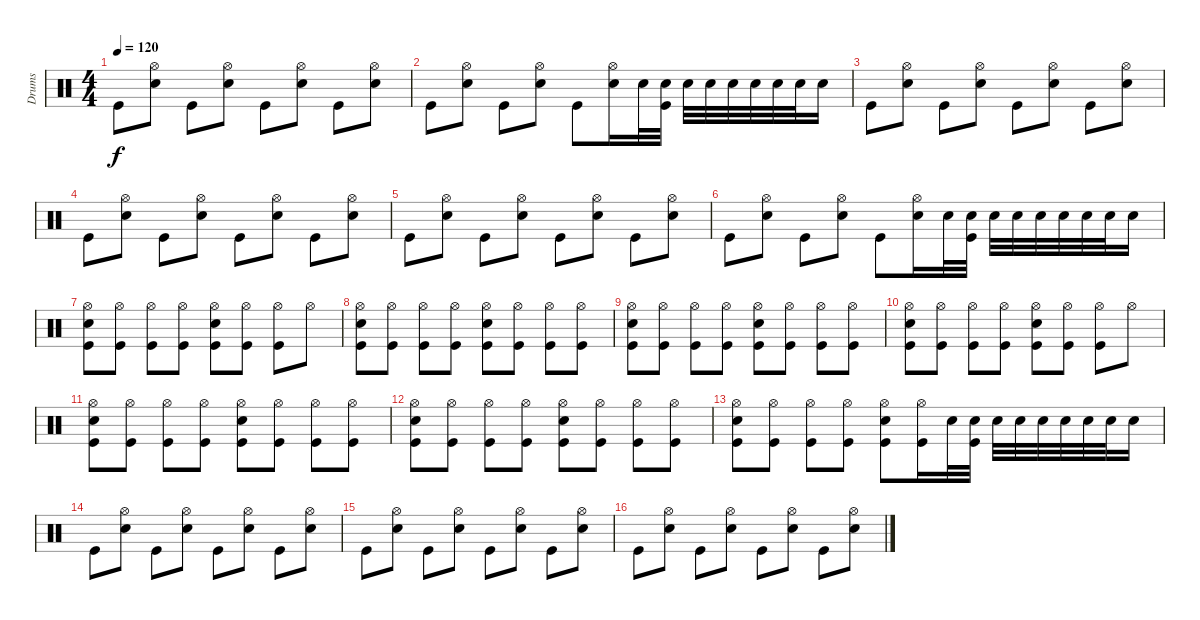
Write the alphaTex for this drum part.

\track ("Drums" "Drums") {instrument percussion}
\staff {score}
\articulation defaults
\ts (4 4)
\tempo 120
\clef neutral
\ks c "Kick (hit)".8{dy f}
("Hi-Hat (open)" "Electric Snare (hit)").8 "Kick (hit)".8 ("Hi-Hat (open)" "Electric Snare (hit)").8 "Kick (hit)".8 ("Hi-Hat (open)" "Electric Snare (hit)").8 "Kick (hit)".8 ("Hi-Hat (open)" "Electric Snare (hit)").8 |
"Kick (hit)".8 ("Hi-Hat (open)" "Electric Snare (hit)").8 "Kick (hit)".8 ("Hi-Hat (open)" "Electric Snare (hit)").8 "Kick (hit)".8 ("Hi-Hat (open)" "Electric Snare (hit)").16 "Electric Snare (hit)".32 ("Electric Snare (hit)" "Kick (hit)").32 "Electric Snare (hit)".32 "Electric Snare (hit)".32 "Electric Snare (hit)".32 "Electric Snare (hit)".32 "Electric Snare (hit)".32 "Electric Snare (hit)".32 "Electric Snare (hit)".16 |
"Kick (hit)".8 ("Hi-Hat (open)" "Electric Snare (hit)").8 "Kick (hit)".8 ("Hi-Hat (open)" "Electric Snare (hit)").8 "Kick (hit)".8 ("Hi-Hat (open)" "Electric Snare (hit)").8 "Kick (hit)".8 ("Hi-Hat (open)" "Electric Snare (hit)").8 |
"Kick (hit)".8 ("Hi-Hat (open)" "Electric Snare (hit)").8 "Kick (hit)".8 ("Hi-Hat (open)" "Electric Snare (hit)").8 "Kick (hit)".8 ("Hi-Hat (open)" "Electric Snare (hit)").8 "Kick (hit)".8 ("Hi-Hat (open)" "Electric Snare (hit)").8 |
"Kick (hit)".8 ("Hi-Hat (open)" "Electric Snare (hit)").8 "Kick (hit)".8 ("Hi-Hat (open)" "Electric Snare (hit)").8 "Kick (hit)".8 ("Hi-Hat (open)" "Electric Snare (hit)").8 "Kick (hit)".8 ("Hi-Hat (open)" "Electric Snare (hit)").8 |
"Kick (hit)".8 ("Hi-Hat (open)" "Electric Snare (hit)").8 "Kick (hit)".8 ("Hi-Hat (open)" "Electric Snare (hit)").8 "Kick (hit)".8 ("Hi-Hat (open)" "Electric Snare (hit)").16 "Electric Snare (hit)".32 ("Electric Snare (hit)" "Kick (hit)").32 "Electric Snare (hit)".32 "Electric Snare (hit)".32 "Electric Snare (hit)".32 "Electric Snare (hit)".32 "Electric Snare (hit)".32 "Electric Snare (hit)".32 "Electric Snare (hit)".16 |
("Hi-Hat (open)" "Electric Snare (hit)" "Kick (hit)").8 ("Hi-Hat (open)" "Kick (hit)").8 ("Hi-Hat (open)" "Kick (hit)").8 ("Hi-Hat (open)" "Kick (hit)").8 ("Hi-Hat (open)" "Electric Snare (hit)" "Kick (hit)").8 ("Hi-Hat (open)" "Kick (hit)").8 ("Hi-Hat (open)" "Kick (hit)").8 "Hi-Hat (open)".8 |
("Hi-Hat (open)" "Electric Snare (hit)" "Kick (hit)").8 ("Hi-Hat (open)" "Kick (hit)").8 ("Hi-Hat (open)" "Kick (hit)").8 ("Hi-Hat (open)" "Kick (hit)").8 ("Hi-Hat (open)" "Electric Snare (hit)" "Kick (hit)").8 ("Hi-Hat (open)" "Kick (hit)").8 ("Hi-Hat (open)" "Kick (hit)").8 ("Hi-Hat (open)" "Kick (hit)").8 |
("Hi-Hat (open)" "Electric Snare (hit)" "Kick (hit)").8 ("Hi-Hat (open)" "Kick (hit)").8 ("Hi-Hat (open)" "Kick (hit)").8 ("Hi-Hat (open)" "Kick (hit)").8 ("Hi-Hat (open)" "Electric Snare (hit)" "Kick (hit)").8 ("Hi-Hat (open)" "Kick (hit)").8 ("Hi-Hat (open)" "Kick (hit)").8 ("Hi-Hat (open)" "Kick (hit)").8 |
("Hi-Hat (open)" "Electric Snare (hit)" "Kick (hit)").8 ("Hi-Hat (open)" "Kick (hit)").8 ("Hi-Hat (open)" "Kick (hit)").8 ("Hi-Hat (open)" "Kick (hit)").8 ("Hi-Hat (open)" "Electric Snare (hit)" "Kick (hit)").8 ("Hi-Hat (open)" "Kick (hit)").8 ("Hi-Hat (open)" "Kick (hit)").8 "Hi-Hat (open)".8 |
("Hi-Hat (open)" "Electric Snare (hit)" "Kick (hit)").8 ("Hi-Hat (open)" "Kick (hit)").8 ("Hi-Hat (open)" "Kick (hit)").8 ("Hi-Hat (open)" "Kick (hit)").8 ("Hi-Hat (open)" "Electric Snare (hit)" "Kick (hit)").8 ("Hi-Hat (open)" "Kick (hit)").8 ("Hi-Hat (open)" "Kick (hit)").8 ("Hi-Hat (open)" "Kick (hit)").8 |
("Hi-Hat (open)" "Electric Snare (hit)" "Kick (hit)").8 ("Hi-Hat (open)" "Kick (hit)").8 ("Hi-Hat (open)" "Kick (hit)").8 ("Hi-Hat (open)" "Kick (hit)").8 ("Hi-Hat (open)" "Electric Snare (hit)" "Kick (hit)").8 ("Hi-Hat (open)" "Kick (hit)").8 ("Hi-Hat (open)" "Kick (hit)").8 ("Hi-Hat (open)" "Kick (hit)").8 |
("Hi-Hat (open)" "Electric Snare (hit)" "Kick (hit)").8 ("Hi-Hat (open)" "Kick (hit)").8 ("Hi-Hat (open)" "Kick (hit)").8 ("Hi-Hat (open)" "Kick (hit)").8 ("Hi-Hat (open)" "Electric Snare (hit)" "Kick (hit)").8 ("Hi-Hat (open)" "Kick (hit)").16 "Electric Snare (hit)".32 ("Electric Snare (hit)" "Kick (hit)").32 "Electric Snare (hit)".32 "Electric Snare (hit)".32 "Electric Snare (hit)".32 "Electric Snare (hit)".32 "Electric Snare (hit)".32 "Electric Snare (hit)".32 "Electric Snare (hit)".16 |
"Kick (hit)".8 ("Hi-Hat (open)" "Electric Snare (hit)").8 "Kick (hit)".8 ("Hi-Hat (open)" "Electric Snare (hit)").8 "Kick (hit)".8 ("Hi-Hat (open)" "Electric Snare (hit)").8 "Kick (hit)".8 ("Hi-Hat (open)" "Electric Snare (hit)").8 |
"Kick (hit)".8 ("Hi-Hat (open)" "Electric Snare (hit)").8 "Kick (hit)".8 ("Hi-Hat (open)" "Electric Snare (hit)").8 "Kick (hit)".8 ("Hi-Hat (open)" "Electric Snare (hit)").8 "Kick (hit)".8 ("Hi-Hat (open)" "Electric Snare (hit)").8 |
"Kick (hit)".8 ("Hi-Hat (open)" "Electric Snare (hit)").8 "Kick (hit)".8 ("Hi-Hat (open)" "Electric Snare (hit)").8 "Kick (hit)".8 ("Hi-Hat (open)" "Electric Snare (hit)").8 "Kick (hit)".8 ("Hi-Hat (open)" "Electric Snare (hit)").8
